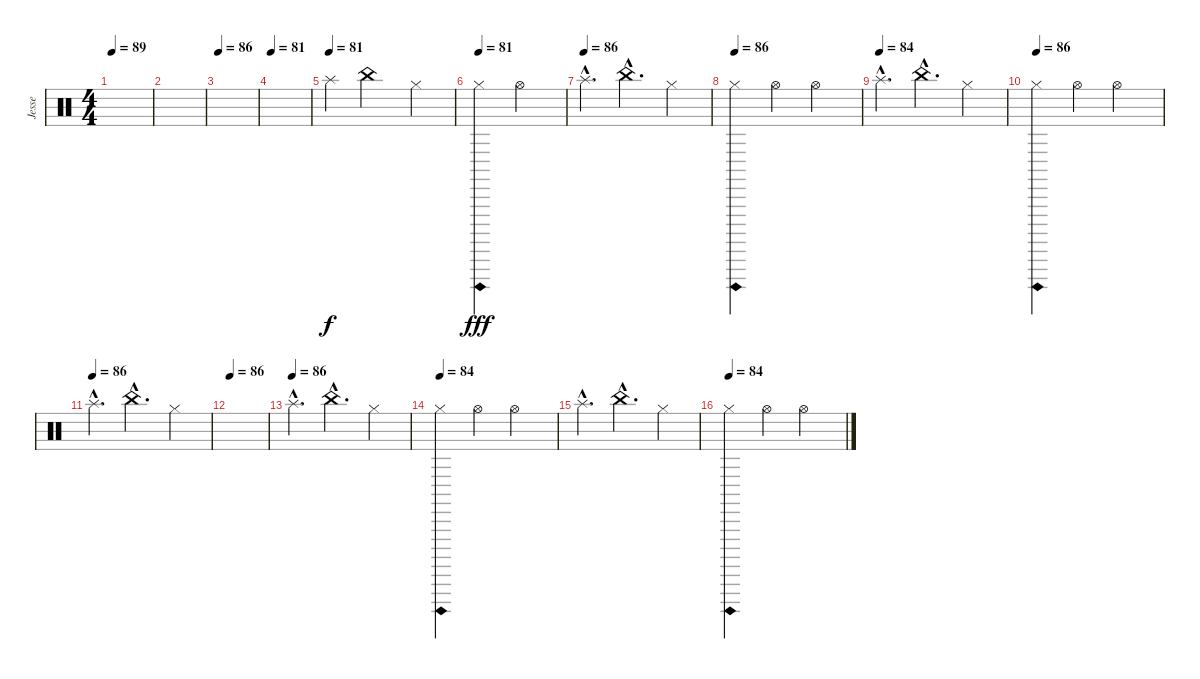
\track ("Jesse" "Jesse") {instrument percussion}
\staff {score}
\articulation defaults
\ts (4 4)
\tempo 89
\clef neutral
\ks c
|
|
\tempo 86
|
\tempo 81
|
\tempo (81)
"Splash (hit)".4 "China (hit)".2 "Hi-Hat (closed)".4{dy f} |
\tempo (81)
"Hi-Hat (closed)"{ah 12}.4{dy fff} "Hi-Hat (open)".2 |
\tempo (86)
"Splash (hit)"{hac}.4{d} "China (hit)"{hac}.4{d} "Hi-Hat (closed)".4 |
\tempo (86)
"Hi-Hat (closed)"{ah 12}.4 "Hi-Hat (open)".4 "Hi-Hat (open)".2 |
\tempo (84)
"Splash (hit)"{hac}.4{d} "China (hit)"{hac}.4{d} "Hi-Hat (closed)".4 |
\tempo (86)
"Hi-Hat (closed)"{ah 12}.4 "Hi-Hat (open)".4 "Hi-Hat (open)".2 |
\tempo (86)
"Splash (hit)"{hac}.4{d} "China (hit)"{hac}.4{d} "Hi-Hat (closed)".4 |
\tempo 86
|
\tempo (86)
"Splash (hit)"{hac}.4{d} "China (hit)"{hac}.4{d} "Hi-Hat (closed)".4 |
\tempo (84)
"Hi-Hat (closed)"{ah 12}.4 "Hi-Hat (open)".4 "Hi-Hat (open)".2 |
"Splash (hit)"{hac}.4{d} "China (hit)"{hac}.4{d} "Hi-Hat (closed)".4 |
\tempo (84)
"Hi-Hat (closed)"{ah 12}.4 "Hi-Hat (open)".4 "Hi-Hat (open)".2
